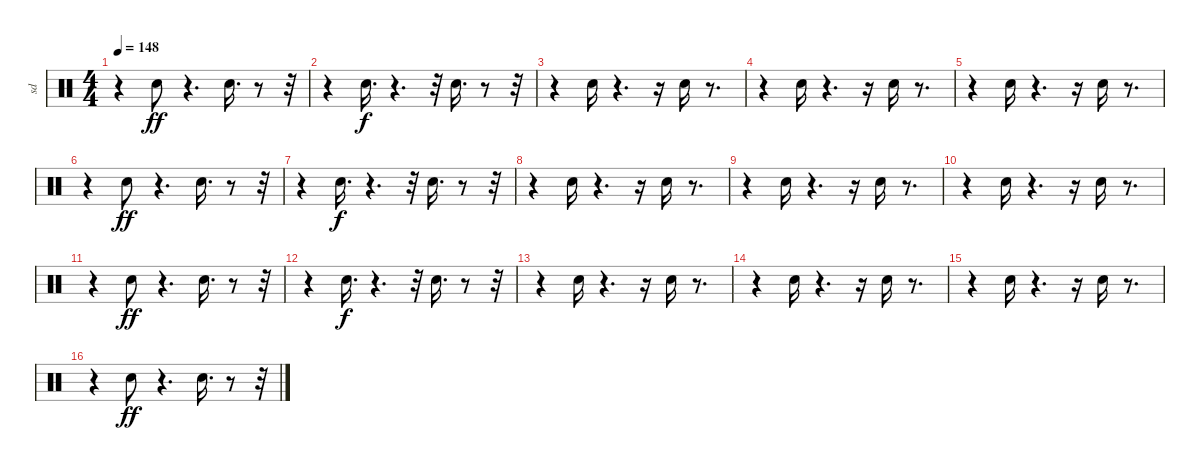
\track ("sd                  " "sd        ") {instrument percussion}
\staff {score}
\articulation defaults
\ts (4 4)
\tempo 148
\clef neutral
\ks c
r.4{dy f} "Snare (hit) 2".8{dy ff} r.4{d} "Snare (hit) 2".16{d} r.8 r.32 |
r.4 "Snare (hit) 2".16{d dy f} r.4{d} r.32 "Snare (hit) 2".16{d} r.8 r.32 |
r.4 "Snare (hit) 2".16 r.4{d} r.16 "Snare (hit) 2".16 r.8{d} |
r.4 "Snare (hit) 2".16 r.4{d} r.16 "Snare (hit) 2".16 r.8{d} |
r.4 "Snare (hit) 2".16 r.4{d} r.16 "Snare (hit) 2".16 r.8{d} |
r.4 "Snare (hit) 2".8{dy ff} r.4{d} "Snare (hit) 2".16{d} r.8 r.32 |
r.4 "Snare (hit) 2".16{d dy f} r.4{d} r.32 "Snare (hit) 2".16{d} r.8 r.32 |
r.4 "Snare (hit) 2".16 r.4{d} r.16 "Snare (hit) 2".16 r.8{d} |
r.4 "Snare (hit) 2".16 r.4{d} r.16 "Snare (hit) 2".16 r.8{d} |
r.4 "Snare (hit) 2".16 r.4{d} r.16 "Snare (hit) 2".16 r.8{d} |
r.4 "Snare (hit) 2".8{dy ff} r.4{d} "Snare (hit) 2".16{d} r.8 r.32 |
r.4 "Snare (hit) 2".16{d dy f} r.4{d} r.32 "Snare (hit) 2".16{d} r.8 r.32 |
r.4 "Snare (hit) 2".16 r.4{d} r.16 "Snare (hit) 2".16 r.8{d} |
r.4 "Snare (hit) 2".16 r.4{d} r.16 "Snare (hit) 2".16 r.8{d} |
r.4 "Snare (hit) 2".16 r.4{d} r.16 "Snare (hit) 2".16 r.8{d} |
r.4 "Snare (hit) 2".8{dy ff} r.4{d} "Snare (hit) 2".16{d} r.8 r.32
